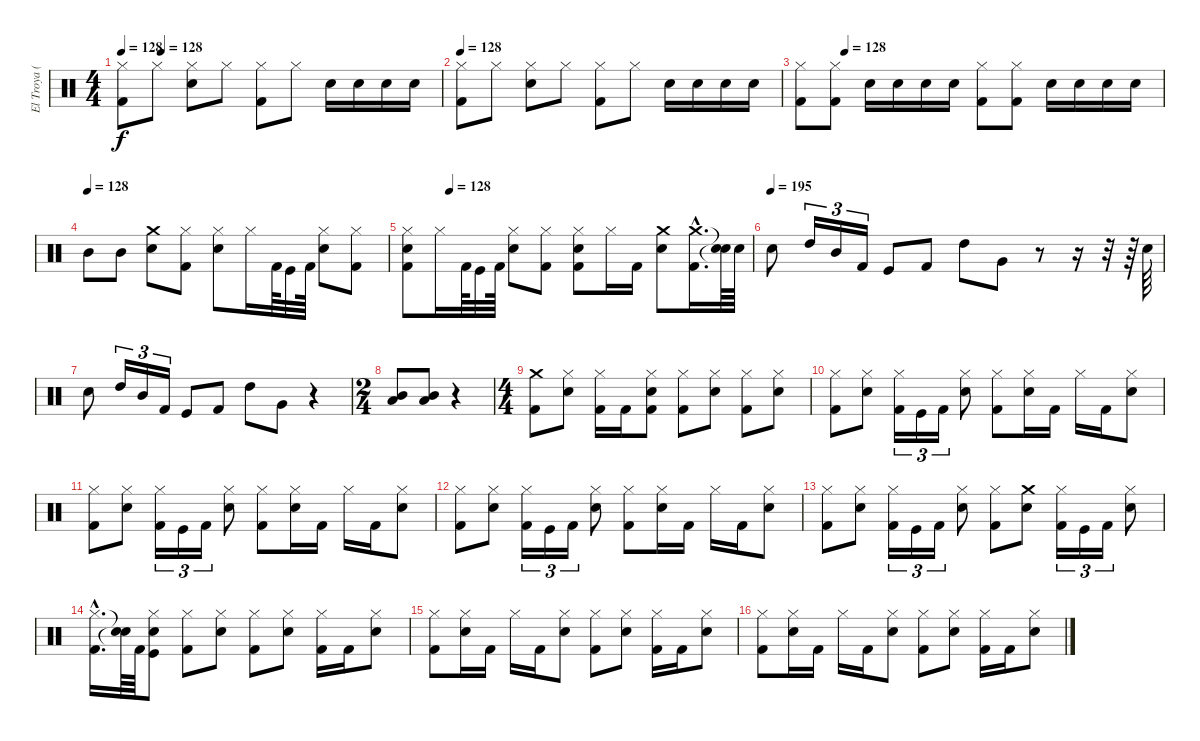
\track ("El Troya (premio)" "El Troya (") {instrument percussion}
\staff {score}
\articulation defaults
\ts (4 4)
\tempo 128
\tempo (128 0.125)
\clef neutral
\ks c
("Hi-Hat (closed)" "Kick (hit) 2").8{dy f} "Hi-Hat (closed)".8 ("Snare (hit) 2" "Hi-Hat (closed)").8 "Hi-Hat (closed)".8 ("Hi-Hat (closed)" "Kick (hit) 2").8 "Hi-Hat (closed)".8 "Snare (hit) 2".16 "Snare (hit) 2".16 "Snare (hit) 2".16 "Snare (hit) 2".16 |
\tempo 128
("Hi-Hat (closed)" "Kick (hit) 2").8 "Hi-Hat (closed)".8 ("Snare (hit) 2" "Hi-Hat (closed)").8 "Hi-Hat (closed)".8 ("Hi-Hat (closed)" "Kick (hit) 2").8 "Hi-Hat (closed)".8 "Snare (hit) 2".16 "Snare (hit) 2".16 "Snare (hit) 2".16 "Snare (hit) 2".16 |
\tempo (128 0.125)
("Kick (hit) 2" "Hi-Hat (closed)").8 ("Kick (hit) 2" "Hi-Hat (closed)").8 "Snare (hit) 2".16 "Snare (hit) 2".16 "Snare (hit) 2".16 "Snare (hit) 2".16 ("Kick (hit) 2" "Hi-Hat (closed)").8 ("Kick (hit) 2" "Hi-Hat (closed)").8 "Snare (hit) 2".16 "Snare (hit) 2".16 "Snare (hit) 2".16 "Snare (hit) 2".16 |
\tempo (128)
"Mid Tom (hit)".8 "Mid Tom (hit)".8 ("Crash medium (hit)" "Snare (hit) 2").8 ("Kick (hit) 2" "Hi-Hat (closed)").8 ("Snare (hit) 2" "Hi-Hat (closed)").8 "Hi-Hat (closed)".16 "Kick (hit) 2".64 "Kick (hit)".32 "Kick (hit) 2".64 ("Snare (hit) 2" "Hi-Hat (closed)").8 ("Kick (hit) 2" "Hi-Hat (closed)").8 |
\tempo (128 0.125)
("Hi-Hat (closed)" "Snare (hit) 2" "Kick (hit) 2").8 "Hi-Hat (closed)".16 "Kick (hit) 2".64 "Kick (hit)".32 "Kick (hit) 2".64 ("Snare (hit) 2" "Hi-Hat (closed)").8 ("Hi-Hat (closed)" "Kick (hit) 2").8 ("Snare (hit) 2" "Hi-Hat (closed)" "Kick (hit) 2").8 "Hi-Hat (closed)".16 "Kick (hit) 2".16 ("Crash medium (hit)" "Snare (hit) 2").8 ("Crash medium (hit)"{hac} "Kick (hit) 2"{hac}).16{d} ("Snare (hit)"{t} "Snare (hit)"{t}).64 "Snare (hit) 2".64 |
\tempo (195)
"Snare (hit) 2".8 "High Tom (hit)".16{tu (3 2)} "Mid Tom (hit)".16{tu (3 2)} "Kick (hit) 2".16{tu (3 2)} "Kick (hit)".8 "Kick (hit) 2".8 "High Tom (hit)".8 "Very Low Tom (hit)".8 r.8 r.16 r.32 r.64 "Snare (hit) 2".64 |
"Snare (hit) 2".8 "High Tom (hit)".16{tu (3 2)} "Mid Tom (hit)".16{tu (3 2)} "Kick (hit) 2".16{tu (3 2)} "Kick (hit)".8 "Kick (hit) 2".8 "High Tom (hit)".8 "Very Low Tom (hit)".8 r.4 |
\ts (2 4)
("Mid Tom (hit)" "Low Tom (hit)").8 ("Mid Tom (hit)" "Low Tom (hit)").8 r.4 |
\ts (4 4)
("Kick (hit) 2" "Crash medium (hit)").8 ("Hi-Hat (closed)" "Snare (hit) 2").8 ("Kick (hit) 2" "Hi-Hat (closed)").16 "Kick (hit) 2".16 ("Kick (hit) 2" "Snare (hit) 2" "Hi-Hat (closed)").8 ("Kick (hit) 2" "Hi-Hat (closed)").8 ("Snare (hit) 2" "Hi-Hat (closed)").8 ("Kick (hit) 2" "Hi-Hat (closed)").8 ("Snare (hit) 2" "Hi-Hat (closed)").8 |
("Kick (hit) 2" "Hi-Hat (closed)").8 ("Snare (hit) 2" "Hi-Hat (closed)").8 ("Kick (hit) 2" "Hi-Hat (closed)").16{tu (3 2)} "Kick (hit)".16{tu (3 2)} "Kick (hit) 2".16{tu (3 2)} ("Snare (hit) 2" "Hi-Hat (closed)").8 ("Kick (hit) 2" "Hi-Hat (closed)").8 ("Snare (hit) 2" "Hi-Hat (closed)").16 "Kick (hit) 2".16 "Hi-Hat (closed)".16 "Kick (hit) 2".16 ("Snare (hit) 2" "Hi-Hat (closed)").8 |
("Kick (hit) 2" "Hi-Hat (closed)").8 ("Snare (hit) 2" "Hi-Hat (closed)").8 ("Kick (hit) 2" "Hi-Hat (closed)").16{tu (3 2)} "Kick (hit)".16{tu (3 2)} "Kick (hit) 2".16{tu (3 2)} ("Snare (hit) 2" "Hi-Hat (closed)").8 ("Kick (hit) 2" "Hi-Hat (closed)").8 ("Snare (hit) 2" "Hi-Hat (closed)").16 "Kick (hit) 2".16 "Hi-Hat (closed)".16 "Kick (hit) 2".16 ("Snare (hit) 2" "Hi-Hat (closed)").8 |
("Kick (hit) 2" "Hi-Hat (closed)").8 ("Snare (hit) 2" "Hi-Hat (closed)").8 ("Kick (hit) 2" "Hi-Hat (closed)").16{tu (3 2)} "Kick (hit)".16{tu (3 2)} "Kick (hit) 2".16{tu (3 2)} ("Snare (hit) 2" "Hi-Hat (closed)").8 ("Kick (hit) 2" "Hi-Hat (closed)").8 ("Snare (hit) 2" "Hi-Hat (closed)").16 "Kick (hit) 2".16 "Hi-Hat (closed)".16 "Kick (hit) 2".16 ("Snare (hit) 2" "Hi-Hat (closed)").8 |
("Kick (hit) 2" "Hi-Hat (closed)").8 ("Snare (hit) 2" "Hi-Hat (closed)").8 ("Kick (hit) 2" "Hi-Hat (closed)").16{tu (3 2)} "Kick (hit)".16{tu (3 2)} "Kick (hit) 2".16{tu (3 2)} ("Snare (hit) 2" "Hi-Hat (closed)").8 ("Kick (hit) 2" "Hi-Hat (closed)").8 ("Crash medium (hit)" "Snare (hit) 2").8 ("Kick (hit) 2" "Hi-Hat (closed)").16{tu (3 2)} "Kick (hit)".16{tu (3 2)} "Kick (hit) 2".16{tu (3 2)} ("Snare (hit) 2" "Hi-Hat (closed)").8 |
("Kick (hit) 2"{hac} "Hi-Hat (closed)"{hac}).16{d} ("Snare (hit)"{t} "Snare (hit)"{t}).64 "Kick (hit) 2".64 ("Kick (hit)" "Snare (hit) 2" "Hi-Hat (closed)").8 ("Kick (hit) 2" "Hi-Hat (closed)").8 ("Snare (hit) 2" "Hi-Hat (closed)").8 ("Kick (hit) 2" "Hi-Hat (closed)").8 ("Snare (hit) 2" "Hi-Hat (closed)").8 ("Kick (hit) 2" "Hi-Hat (closed)").16 "Kick (hit) 2".16 ("Snare (hit) 2" "Hi-Hat (closed)").8 |
("Hi-Hat (closed)" "Kick (hit) 2").8 ("Snare (hit) 2" "Hi-Hat (closed)").16 "Kick (hit) 2".16 "Hi-Hat (closed)".16 "Kick (hit) 2".16 ("Snare (hit) 2" "Hi-Hat (closed)").8 ("Hi-Hat (closed)" "Kick (hit) 2").8 ("Snare (hit) 2" "Hi-Hat (closed)").8 ("Hi-Hat (closed)" "Kick (hit) 2").16 "Kick (hit) 2".16 ("Snare (hit) 2" "Hi-Hat (closed)").8 |
("Hi-Hat (closed)" "Kick (hit) 2").8 ("Snare (hit) 2" "Hi-Hat (closed)").16 "Kick (hit) 2".16 "Hi-Hat (closed)".16 "Kick (hit) 2".16 ("Snare (hit) 2" "Hi-Hat (closed)").8 ("Hi-Hat (closed)" "Kick (hit) 2").8 ("Snare (hit) 2" "Hi-Hat (closed)").8 ("Hi-Hat (closed)" "Kick (hit) 2").16 "Kick (hit) 2".16 ("Snare (hit) 2" "Hi-Hat (closed)").8
